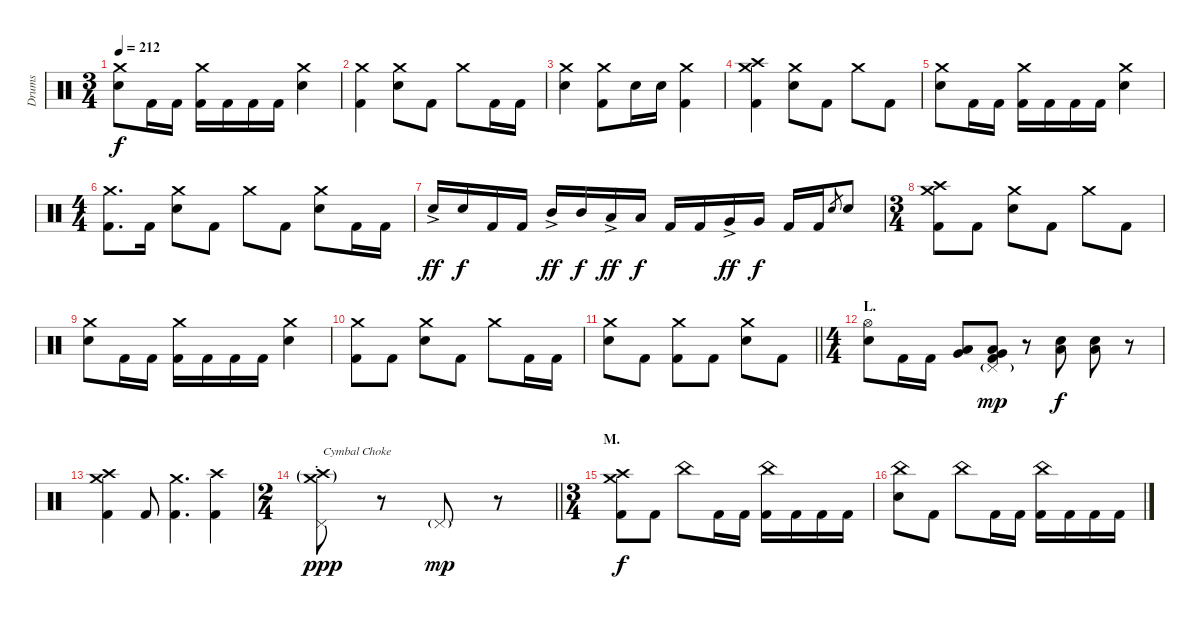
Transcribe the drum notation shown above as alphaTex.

\track ("Drums" "Drums") {instrument percussion}
\staff {score}
\articulation defaults
\ts (3 4)
\tempo 212
\clef neutral
\ks c
("Crash medium (hit)" "Electric Snare (hit)").8{dy f} "Kick (hit) 2".16 "Kick (hit) 2".16 ("Crash medium (hit)" "Kick (hit) 2").16 "Kick (hit) 2".16 "Kick (hit) 2".16 "Kick (hit) 2".16 ("Crash medium (hit)" "Electric Snare (hit)").4 |
("Crash medium (hit)" "Kick (hit) 2").4 ("Crash medium (hit)" "Electric Snare (hit)").8 "Kick (hit) 2".8 "Crash medium (hit)".8 "Kick (hit) 2".16 "Kick (hit) 2".16 |
("Crash medium (hit)" "Electric Snare (hit)").4 ("Crash medium (hit)" "Kick (hit) 2").8 "Electric Snare (hit)".16 "Electric Snare (hit)".16 ("Crash medium (hit)" "Kick (hit) 2").4 |
("Crash medium (hit)" "Crash high (hit)" "Kick (hit) 2").4 ("Crash medium (hit)" "Electric Snare (hit)").8 "Kick (hit) 2".8 "Crash medium (hit)".8 "Kick (hit) 2".8 |
("Crash medium (hit)" "Electric Snare (hit)").8 "Kick (hit) 2".16 "Kick (hit) 2".16 ("Crash medium (hit)" "Kick (hit) 2").16 "Kick (hit) 2".16 "Kick (hit) 2".16 "Kick (hit) 2".16 ("Crash medium (hit)" "Electric Snare (hit)").4 |
\ts (4 4)
("Crash medium (hit)" "Kick (hit) 2").8{d} "Kick (hit) 2".16 ("Crash medium (hit)" "Electric Snare (hit)").8 "Kick (hit) 2".8 "Crash medium (hit)".8 "Kick (hit) 2".8 ("Crash medium (hit)" "Electric Snare (hit)").8 "Kick (hit) 2".16 "Kick (hit) 2".16 |
"Electric Snare (hit)"{ac}.16{dy ff} "Electric Snare (hit)".16{dy f} "Kick (hit) 2".16 "Kick (hit) 2".16 "Mid Tom (hit)"{ac}.16{dy ff} "Mid Tom (hit)".16{dy f} "Low Tom (hit)"{ac}.16{dy ff} "Low Tom (hit)".16{dy f} "Kick (hit) 2".16 "Kick (hit) 2".16 "Very Low Tom (hit)"{ac}.16{dy ff} "Very Low Tom (hit)".16{dy f} "Kick (hit) 2".16 "Kick (hit) 2".16 "Electric Snare (hit)".8{gr} "Electric Snare (hit)".8 |
\ts (3 4)
("Crash medium (hit)" "Crash high (hit)" "Kick (hit) 2").8 "Kick (hit) 2".8 ("Crash medium (hit)" "Electric Snare (hit)").8 "Kick (hit) 2".8 "Crash medium (hit)".8 "Kick (hit) 2".8 |
("Crash medium (hit)" "Electric Snare (hit)").8 "Kick (hit) 2".16 "Kick (hit) 2".16 ("Crash medium (hit)" "Kick (hit) 2").16 "Kick (hit) 2".16 "Kick (hit) 2".16 "Kick (hit) 2".16 ("Crash medium (hit)" "Electric Snare (hit)").4 |
("Crash medium (hit)" "Kick (hit) 2").8 "Kick (hit) 2".8 ("Crash medium (hit)" "Electric Snare (hit)").8 "Kick (hit) 2".8 "Crash medium (hit)".8 "Kick (hit) 2".16 "Kick (hit) 2".16 |
\barLineRight lightlight
("Crash medium (hit)" "Electric Snare (hit)").8 "Kick (hit) 2".8 ("Crash medium (hit)" "Kick (hit) 2").8 "Kick (hit) 2".8 ("Crash medium (hit)" "Electric Snare (hit)").8 "Kick (hit) 2".8 |
\ts (4 4)
\section ("" "L.")
("Hi-Hat (open)" "Electric Snare (hit)").8 "Kick (hit) 2".16 "Kick (hit) 2".16 ("Low Tom (hit)" "Very Low Tom (hit)").8 ("Pedal Hi-Hat (hit)"{g} "Low Tom (hit)" "Very Low Tom (hit)" "Kick (hit) 2").8{dy mp} r.8 ("Low Tom (hit)" "Electric Snare (hit)").8{bu 120 dy f} ("Low Tom (hit)" "Electric Snare (hit)").8{bu 120} r.8 |
("Crash medium (hit)" "Crash high (hit)" "Kick (hit) 2").4 "Kick (hit) 2".8 ("Crash medium (hit)" "Kick (hit) 2").4{d} ("Crash high (hit)" "Kick (hit) 2").4 |
\ts (2 4)
\barLineRight lightlight
("Crash medium (hit)"{g st} "Crash high (hit)"{g st} "Pedal Hi-Hat (hit)").8{txt "Cymbal Choke" dy ppp} r.8 "Pedal Hi-Hat (hit)"{g}.8{dy mp} r.8 |
\ts (3 4)
\section ("" "M.")
("Crash medium (hit)" "Crash high (hit)" "Kick (hit) 2").8{dy f} "Kick (hit) 2".8 "China (hit)".8 "Kick (hit) 2".16 "Kick (hit) 2".16 ("China (hit)" "Kick (hit) 2").16 "Kick (hit) 2".16 "Kick (hit) 2".16 "Kick (hit) 2".16 |
("China (hit)" "Electric Snare (hit)").8 "Kick (hit) 2".8 "China (hit)".8 "Kick (hit) 2".16 "Kick (hit) 2".16 ("China (hit)" "Kick (hit) 2").16 "Kick (hit) 2".16 "Kick (hit) 2".16 "Kick (hit) 2".16
